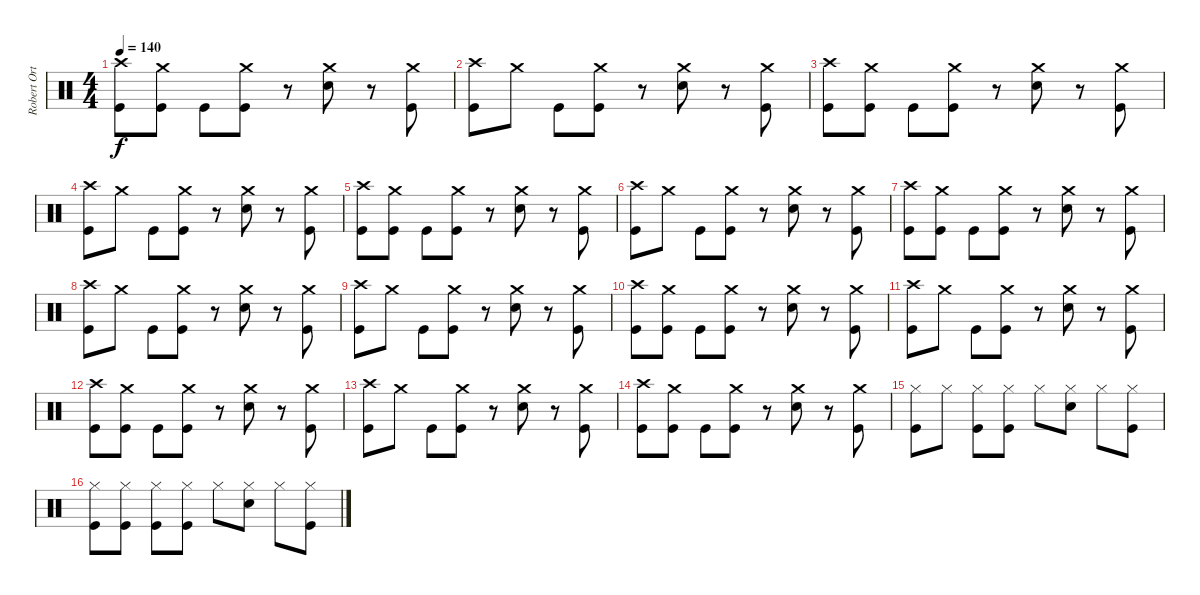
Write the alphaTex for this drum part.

\track ("Robert Ortiz" "Robert Ort") {instrument percussion}
\staff {score}
\articulation defaults
\ts (4 4)
\tempo 140
\clef neutral
\ks c
("Crash high (hit)" "Kick (hit)").8{dy f} ("Crash medium (hit)" "Kick (hit)").8 "Kick (hit)".8 ("Crash medium (hit)" "Kick (hit)").8 r.8 ("Crash medium (hit)" "Snare (hit) 2").8 r.8 ("Crash medium (hit)" "Kick (hit)").8 |
("Crash high (hit)" "Kick (hit)").8 "Crash medium (hit)".8 "Kick (hit)".8 ("Crash medium (hit)" "Kick (hit)").8 r.8 ("Crash medium (hit)" "Snare (hit) 2").8 r.8 ("Crash medium (hit)" "Kick (hit)").8 |
("Crash high (hit)" "Kick (hit)").8 ("Crash medium (hit)" "Kick (hit)").8 "Kick (hit)".8 ("Crash medium (hit)" "Kick (hit)").8 r.8 ("Crash medium (hit)" "Snare (hit) 2").8 r.8 ("Crash medium (hit)" "Kick (hit)").8 |
("Crash high (hit)" "Kick (hit)").8 "Crash medium (hit)".8 "Kick (hit)".8 ("Crash medium (hit)" "Kick (hit)").8 r.8 ("Crash medium (hit)" "Snare (hit) 2").8 r.8 ("Crash medium (hit)" "Kick (hit)").8 |
("Crash high (hit)" "Kick (hit)").8 ("Crash medium (hit)" "Kick (hit)").8 "Kick (hit)".8 ("Crash medium (hit)" "Kick (hit)").8 r.8 ("Crash medium (hit)" "Snare (hit) 2").8 r.8 ("Crash medium (hit)" "Kick (hit)").8 |
("Crash high (hit)" "Kick (hit)").8 "Crash medium (hit)".8 "Kick (hit)".8 ("Crash medium (hit)" "Kick (hit)").8 r.8 ("Crash medium (hit)" "Snare (hit) 2").8 r.8 ("Crash medium (hit)" "Kick (hit)").8 |
("Crash high (hit)" "Kick (hit)").8 ("Crash medium (hit)" "Kick (hit)").8 "Kick (hit)".8 ("Crash medium (hit)" "Kick (hit)").8 r.8 ("Crash medium (hit)" "Snare (hit) 2").8 r.8 ("Crash medium (hit)" "Kick (hit)").8 |
("Crash high (hit)" "Kick (hit)").8 "Crash medium (hit)".8 "Kick (hit)".8 ("Crash medium (hit)" "Kick (hit)").8 r.8 ("Crash medium (hit)" "Snare (hit) 2").8 r.8 ("Crash medium (hit)" "Kick (hit)").8 |
("Crash high (hit)" "Kick (hit)").8 "Crash medium (hit)".8 "Kick (hit)".8 ("Crash medium (hit)" "Kick (hit)").8 r.8 ("Crash medium (hit)" "Snare (hit) 2").8 r.8 ("Crash medium (hit)" "Kick (hit)").8 |
("Crash high (hit)" "Kick (hit)").8 ("Crash medium (hit)" "Kick (hit)").8 "Kick (hit)".8 ("Crash medium (hit)" "Kick (hit)").8 r.8 ("Crash medium (hit)" "Snare (hit) 2").8 r.8 ("Crash medium (hit)" "Kick (hit)").8 |
("Crash high (hit)" "Kick (hit)").8 "Crash medium (hit)".8 "Kick (hit)".8 ("Crash medium (hit)" "Kick (hit)").8 r.8 ("Crash medium (hit)" "Snare (hit) 2").8 r.8 ("Crash medium (hit)" "Kick (hit)").8 |
("Crash high (hit)" "Kick (hit)").8 ("Crash medium (hit)" "Kick (hit)").8 "Kick (hit)".8 ("Crash medium (hit)" "Kick (hit)").8 r.8 ("Crash medium (hit)" "Snare (hit) 2").8 r.8 ("Crash medium (hit)" "Kick (hit)").8 |
("Crash high (hit)" "Kick (hit)").8 "Crash medium (hit)".8 "Kick (hit)".8 ("Crash medium (hit)" "Kick (hit)").8 r.8 ("Crash medium (hit)" "Snare (hit) 2").8 r.8 ("Crash medium (hit)" "Kick (hit)").8 |
("Crash high (hit)" "Kick (hit)").8 ("Crash medium (hit)" "Kick (hit)").8 "Kick (hit)".8 ("Crash medium (hit)" "Kick (hit)").8 r.8 ("Crash medium (hit)" "Snare (hit) 2").8 r.8 ("Crash medium (hit)" "Kick (hit)").8 |
("Hi-Hat (closed)" "Kick (hit)").8 "Hi-Hat (closed)".8 ("Hi-Hat (closed)" "Kick (hit)").8 ("Hi-Hat (closed)" "Kick (hit)").8 "Hi-Hat (closed)".8 ("Hi-Hat (closed)" "Snare (hit) 2").8 "Hi-Hat (closed)".8 ("Hi-Hat (closed)" "Kick (hit)").8 |
("Hi-Hat (closed)" "Kick (hit)").8 ("Hi-Hat (closed)" "Kick (hit)").8 ("Hi-Hat (closed)" "Kick (hit)").8 ("Hi-Hat (closed)" "Kick (hit)").8 "Hi-Hat (closed)".8 ("Hi-Hat (closed)" "Snare (hit) 2").8 "Hi-Hat (closed)".8 ("Hi-Hat (closed)" "Kick (hit)").8
